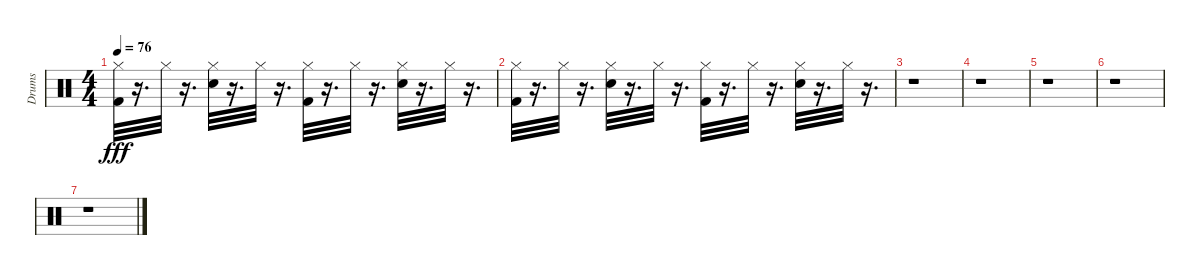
\track ("Drums" "Drums") {instrument percussion}
\staff {score}
\articulation defaults
\ts (4 4)
\tempo 76
\clef neutral
\ks c
("Hi-Hat (closed)" "Kick (hit) 2").32{dy fff} r.16{d} "Hi-Hat (closed)".32 r.16{d} ("Hi-Hat (closed)" "Electric Snare (hit)").32 r.16{d} "Hi-Hat (closed)".32 r.16{d} ("Kick (hit) 2" "Hi-Hat (closed)").32 r.16{d} "Hi-Hat (closed)".32 r.16{d} ("Hi-Hat (closed)" "Electric Snare (hit)").32 r.16{d} "Hi-Hat (closed)".32 r.16{d} |
("Hi-Hat (closed)" "Kick (hit) 2").32 r.16{d} "Hi-Hat (closed)".32 r.16{d} ("Hi-Hat (closed)" "Electric Snare (hit)").32 r.16{d} "Hi-Hat (closed)".32 r.16{d} ("Kick (hit) 2" "Hi-Hat (closed)").32 r.16{d} "Hi-Hat (closed)".32 r.16{d} ("Hi-Hat (closed)" "Electric Snare (hit)").32 r.16{d} "Hi-Hat (closed)".32 r.16{d} |
r.1 |
r.1 |
r.1 |
r.1 |
r.1
